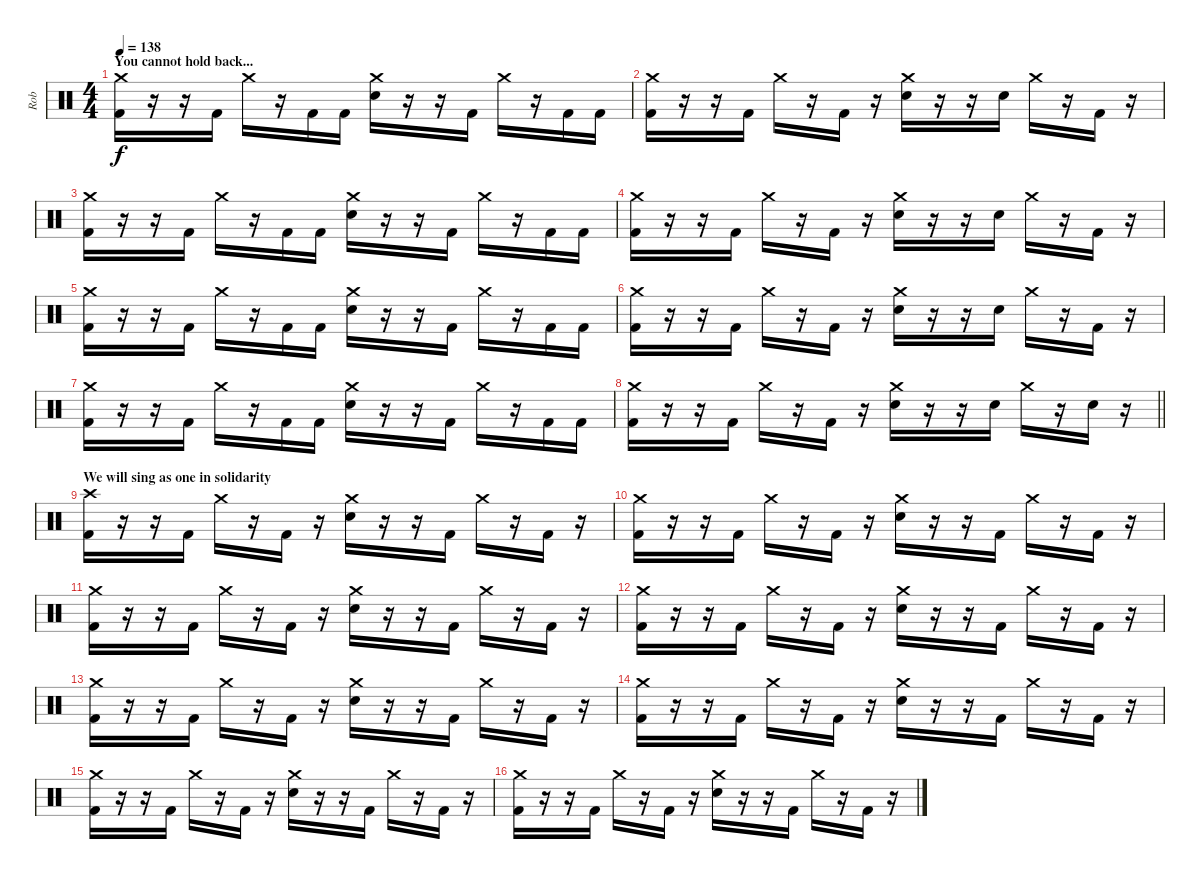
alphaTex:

\track ("Rob" "Rob") {instrument percussion}
\staff {score}
\articulation defaults
\ts (4 4)
\section ("" "You cannot hold back...")
\tempo 138
\clef neutral
\ks c
("Crash medium (hit)" "Kick (hit) 2").16{dy f} r.16 r.16 "Kick (hit) 2".16 "Crash medium (hit)".16 r.16 "Kick (hit) 2".16 "Kick (hit) 2".16 ("Crash medium (hit)" "Electric Snare (hit)").16 r.16 r.16 "Kick (hit) 2".16 "Crash medium (hit)".16 r.16 "Kick (hit) 2".16 "Kick (hit) 2".16 |
("Crash medium (hit)" "Kick (hit) 2").16 r.16 r.16 "Kick (hit) 2".16 "Crash medium (hit)".16 r.16 "Kick (hit) 2".16 r.16 ("Crash medium (hit)" "Electric Snare (hit)").16 r.16 r.16 "Electric Snare (hit)".16 "Crash medium (hit)".16 r.16 "Kick (hit) 2".16 r.16 |
("Crash medium (hit)" "Kick (hit) 2").16 r.16 r.16 "Kick (hit) 2".16 "Crash medium (hit)".16 r.16 "Kick (hit) 2".16 "Kick (hit) 2".16 ("Crash medium (hit)" "Electric Snare (hit)").16 r.16 r.16 "Kick (hit) 2".16 "Crash medium (hit)".16 r.16 "Kick (hit) 2".16 "Kick (hit) 2".16 |
("Crash medium (hit)" "Kick (hit) 2").16 r.16 r.16 "Kick (hit) 2".16 "Crash medium (hit)".16 r.16 "Kick (hit) 2".16 r.16 ("Crash medium (hit)" "Electric Snare (hit)").16 r.16 r.16 "Electric Snare (hit)".16 "Crash medium (hit)".16 r.16 "Kick (hit) 2".16 r.16 |
("Crash medium (hit)" "Kick (hit) 2").16 r.16 r.16 "Kick (hit) 2".16 "Crash medium (hit)".16 r.16 "Kick (hit) 2".16 "Kick (hit) 2".16 ("Crash medium (hit)" "Electric Snare (hit)").16 r.16 r.16 "Kick (hit) 2".16 "Crash medium (hit)".16 r.16 "Kick (hit) 2".16 "Kick (hit) 2".16 |
("Crash medium (hit)" "Kick (hit) 2").16 r.16 r.16 "Kick (hit) 2".16 "Crash medium (hit)".16 r.16 "Kick (hit) 2".16 r.16 ("Crash medium (hit)" "Electric Snare (hit)").16 r.16 r.16 "Electric Snare (hit)".16 "Crash medium (hit)".16 r.16 "Kick (hit) 2".16 r.16 |
("Crash medium (hit)" "Kick (hit) 2").16 r.16 r.16 "Kick (hit) 2".16 "Crash medium (hit)".16 r.16 "Kick (hit) 2".16 "Kick (hit) 2".16 ("Crash medium (hit)" "Electric Snare (hit)").16 r.16 r.16 "Kick (hit) 2".16 "Crash medium (hit)".16 r.16 "Kick (hit) 2".16 "Kick (hit) 2".16 |
\barLineRight lightlight
("Crash medium (hit)" "Kick (hit) 2").16 r.16 r.16 "Kick (hit) 2".16 "Crash medium (hit)".16 r.16 "Kick (hit) 2".16 r.16 ("Crash medium (hit)" "Electric Snare (hit)").16 r.16 r.16 "Electric Snare (hit)".16 "Crash medium (hit)".16 r.16 "Electric Snare (hit)".16 r.16 |
\section ("" "We will sing as one in solidarity")
("Crash high (hit)" "Kick (hit) 2").16 r.16 r.16 "Kick (hit) 2".16 "Crash medium (hit)".16 r.16 "Kick (hit) 2".16 r.16 ("Crash medium (hit)" "Electric Snare (hit)").16 r.16 r.16 "Kick (hit) 2".16 "Crash medium (hit)".16 r.16 "Kick (hit) 2".16 r.16 |
("Crash medium (hit)" "Kick (hit) 2").16 r.16 r.16 "Kick (hit) 2".16 "Crash medium (hit)".16 r.16 "Kick (hit) 2".16 r.16 ("Crash medium (hit)" "Electric Snare (hit)").16 r.16 r.16 "Kick (hit) 2".16 "Crash medium (hit)".16 r.16 "Kick (hit) 2".16 r.16 |
("Crash medium (hit)" "Kick (hit) 2").16 r.16 r.16 "Kick (hit) 2".16 "Crash medium (hit)".16 r.16 "Kick (hit) 2".16 r.16 ("Crash medium (hit)" "Electric Snare (hit)").16 r.16 r.16 "Kick (hit) 2".16 "Crash medium (hit)".16 r.16 "Kick (hit) 2".16 r.16 |
("Crash medium (hit)" "Kick (hit) 2").16 r.16 r.16 "Kick (hit) 2".16 "Crash medium (hit)".16 r.16 "Kick (hit) 2".16 r.16 ("Crash medium (hit)" "Electric Snare (hit)").16 r.16 r.16 "Kick (hit) 2".16 "Crash medium (hit)".16 r.16 "Kick (hit) 2".16 r.16 |
("Crash medium (hit)" "Kick (hit) 2").16 r.16 r.16 "Kick (hit) 2".16 "Crash medium (hit)".16 r.16 "Kick (hit) 2".16 r.16 ("Crash medium (hit)" "Electric Snare (hit)").16 r.16 r.16 "Kick (hit) 2".16 "Crash medium (hit)".16 r.16 "Kick (hit) 2".16 r.16 |
("Crash medium (hit)" "Kick (hit) 2").16 r.16 r.16 "Kick (hit) 2".16 "Crash medium (hit)".16 r.16 "Kick (hit) 2".16 r.16 ("Crash medium (hit)" "Electric Snare (hit)").16 r.16 r.16 "Kick (hit) 2".16 "Crash medium (hit)".16 r.16 "Kick (hit) 2".16 r.16 |
("Crash medium (hit)" "Kick (hit) 2").16 r.16 r.16 "Kick (hit) 2".16 "Crash medium (hit)".16 r.16 "Kick (hit) 2".16 r.16 ("Crash medium (hit)" "Electric Snare (hit)").16 r.16 r.16 "Kick (hit) 2".16 "Crash medium (hit)".16 r.16 "Kick (hit) 2".16 r.16 |
("Crash medium (hit)" "Kick (hit) 2").16 r.16 r.16 "Kick (hit) 2".16 "Crash medium (hit)".16 r.16 "Kick (hit) 2".16 r.16 ("Crash medium (hit)" "Electric Snare (hit)").16 r.16 r.16 "Kick (hit) 2".16 "Crash medium (hit)".16 r.16 "Kick (hit) 2".16 r.16
